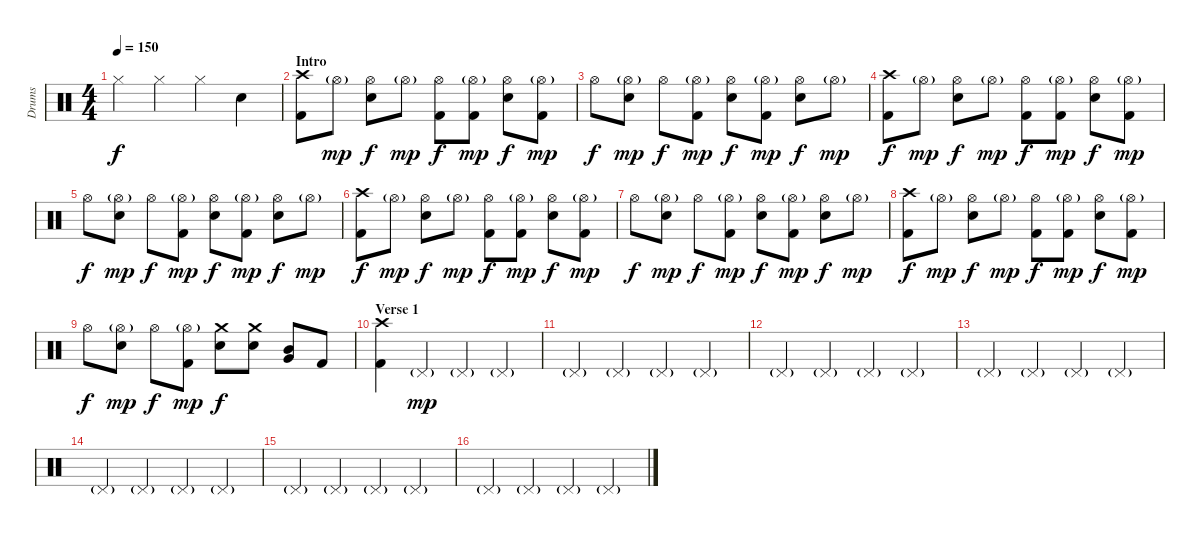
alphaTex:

\track ("Drums" "Drums") {instrument percussion}
\staff {score}
\articulation defaults
\ts (4 4)
\tempo 150
\clef neutral
\ks c "Hi-Hat (closed)".4{dy f} "Hi-Hat (closed)".4 "Hi-Hat (closed)".4 "Electric Snare (hit)".4
|
\section ("" "Intro")
("Crash high (hit)" "Kick (hit) 2").8 "Hi-Hat (open)"{g}.8{dy mp} ("Hi-Hat (open)" "Electric Snare (hit)").8{dy f} "Hi-Hat (open)"{g}.8{dy mp} ("Hi-Hat (open)" "Kick (hit) 2").8{dy f} ("Hi-Hat (open)"{g} "Kick (hit) 2").8{dy mp} ("Hi-Hat (open)" "Electric Snare (hit)").8{dy f} ("Hi-Hat (open)"{g} "Kick (hit) 2").8{dy mp} |
"Hi-Hat (open)".8{dy f} ("Hi-Hat (open)"{g} "Electric Snare (hit)").8{dy mp} "Hi-Hat (open)".8{dy f} ("Hi-Hat (open)"{g} "Kick (hit) 2").8{dy mp} ("Hi-Hat (open)" "Electric Snare (hit)").8{dy f} ("Hi-Hat (open)"{g} "Kick (hit) 2").8{dy mp} ("Hi-Hat (open)" "Electric Snare (hit)").8{dy f} "Hi-Hat (open)"{g}.8{dy mp} |
("Crash high (hit)" "Kick (hit) 2").8{dy f} "Hi-Hat (open)"{g}.8{dy mp} ("Hi-Hat (open)" "Electric Snare (hit)").8{dy f} "Hi-Hat (open)"{g}.8{dy mp} ("Hi-Hat (open)" "Kick (hit) 2").8{dy f} ("Hi-Hat (open)"{g} "Kick (hit) 2").8{dy mp} ("Hi-Hat (open)" "Electric Snare (hit)").8{dy f} ("Hi-Hat (open)"{g} "Kick (hit) 2").8{dy mp} |
"Hi-Hat (open)".8{dy f} ("Hi-Hat (open)"{g} "Electric Snare (hit)").8{dy mp} "Hi-Hat (open)".8{dy f} ("Hi-Hat (open)"{g} "Kick (hit) 2").8{dy mp} ("Hi-Hat (open)" "Electric Snare (hit)").8{dy f} ("Hi-Hat (open)"{g} "Kick (hit) 2").8{dy mp} ("Hi-Hat (open)" "Electric Snare (hit)").8{dy f} "Hi-Hat (open)"{g}.8{dy mp} |
("Crash high (hit)" "Kick (hit) 2").8{dy f} "Hi-Hat (open)"{g}.8{dy mp} ("Hi-Hat (open)" "Electric Snare (hit)").8{dy f} "Hi-Hat (open)"{g}.8{dy mp} ("Hi-Hat (open)" "Kick (hit) 2").8{dy f} ("Hi-Hat (open)"{g} "Kick (hit) 2").8{dy mp} ("Hi-Hat (open)" "Electric Snare (hit)").8{dy f} ("Hi-Hat (open)"{g} "Kick (hit) 2").8{dy mp} |
"Hi-Hat (open)".8{dy f} ("Hi-Hat (open)"{g} "Electric Snare (hit)").8{dy mp} "Hi-Hat (open)".8{dy f} ("Hi-Hat (open)"{g} "Kick (hit) 2").8{dy mp} ("Hi-Hat (open)" "Electric Snare (hit)").8{dy f} ("Hi-Hat (open)"{g} "Kick (hit) 2").8{dy mp} ("Hi-Hat (open)" "Electric Snare (hit)").8{dy f} "Hi-Hat (open)"{g}.8{dy mp} |
("Crash high (hit)" "Kick (hit) 2").8{dy f} "Hi-Hat (open)"{g}.8{dy mp} ("Hi-Hat (open)" "Electric Snare (hit)").8{dy f} "Hi-Hat (open)"{g}.8{dy mp} ("Hi-Hat (open)" "Kick (hit) 2").8{dy f} ("Hi-Hat (open)"{g} "Kick (hit) 2").8{dy mp} ("Hi-Hat (open)" "Electric Snare (hit)").8{dy f} ("Hi-Hat (open)"{g} "Kick (hit) 2").8{dy mp} |
"Hi-Hat (open)".8{dy f} ("Hi-Hat (open)"{g} "Electric Snare (hit)").8{dy mp} "Hi-Hat (open)".8{dy f} ("Hi-Hat (open)"{g} "Kick (hit) 2").8{dy mp} ("Crash medium (hit)" "Electric Snare (hit)").8{dy f} ("Crash medium (hit)" "Electric Snare (hit)").8 ("Mid Tom (hit)" "Very Low Tom (hit)").8 "Kick (hit) 2".8 |
\section ("" "Verse 1")
("Crash high (hit)" "Kick (hit) 2").4 "Pedal Hi-Hat (hit)"{g}.4{dy mp} "Pedal Hi-Hat (hit)"{g}.4 "Pedal Hi-Hat (hit)"{g}.4 |
"Pedal Hi-Hat (hit)"{g}.4 "Pedal Hi-Hat (hit)"{g}.4 "Pedal Hi-Hat (hit)"{g}.4 "Pedal Hi-Hat (hit)"{g}.4 |
"Pedal Hi-Hat (hit)"{g}.4 "Pedal Hi-Hat (hit)"{g}.4 "Pedal Hi-Hat (hit)"{g}.4 "Pedal Hi-Hat (hit)"{g}.4 |
"Pedal Hi-Hat (hit)"{g}.4 "Pedal Hi-Hat (hit)"{g}.4 "Pedal Hi-Hat (hit)"{g}.4 "Pedal Hi-Hat (hit)"{g}.4 |
"Pedal Hi-Hat (hit)"{g}.4 "Pedal Hi-Hat (hit)"{g}.4 "Pedal Hi-Hat (hit)"{g}.4 "Pedal Hi-Hat (hit)"{g}.4 |
"Pedal Hi-Hat (hit)"{g}.4 "Pedal Hi-Hat (hit)"{g}.4 "Pedal Hi-Hat (hit)"{g}.4 "Pedal Hi-Hat (hit)"{g}.4 |
"Pedal Hi-Hat (hit)"{g}.4 "Pedal Hi-Hat (hit)"{g}.4 "Pedal Hi-Hat (hit)"{g}.4 "Pedal Hi-Hat (hit)"{g}.4
